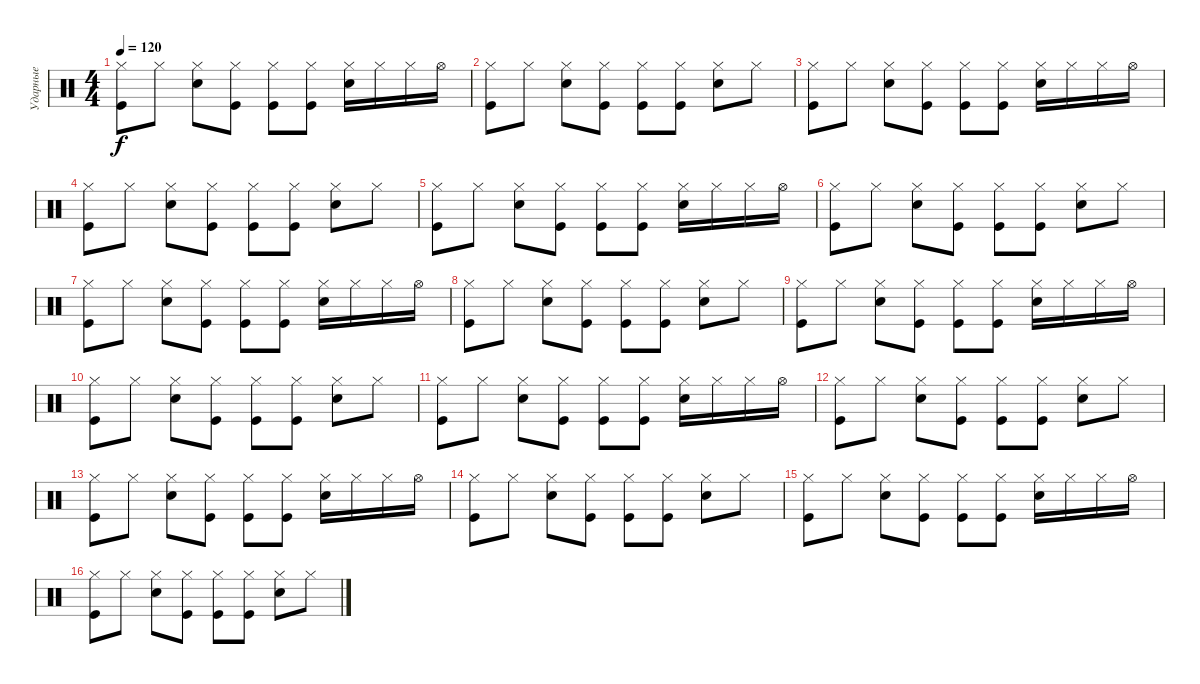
\track ("Ударные" "Ударные") {instrument percussion}
\staff {score}
\articulation defaults
\ts (4 4)
\tempo 120
\clef neutral
\ks c
("Kick (hit)" "Hi-Hat (closed)").8{dy f} "Hi-Hat (closed)".8 ("Hi-Hat (closed)" "Snare (hit) 2").8 ("Hi-Hat (closed)" "Kick (hit)").8 ("Hi-Hat (closed)" "Kick (hit)").8 ("Hi-Hat (closed)" "Kick (hit)").8 ("Hi-Hat (closed)" "Snare (hit) 2").16 "Hi-Hat (closed)".16 "Hi-Hat (closed)".16 "Hi-Hat (open)".16 |
("Kick (hit)" "Hi-Hat (closed)").8 "Hi-Hat (closed)".8 ("Hi-Hat (closed)" "Snare (hit) 2").8 ("Hi-Hat (closed)" "Kick (hit)").8 ("Hi-Hat (closed)" "Kick (hit)").8 ("Hi-Hat (closed)" "Kick (hit)").8 ("Hi-Hat (closed)" "Snare (hit) 2").8 "Hi-Hat (closed)".8 |
("Kick (hit)" "Hi-Hat (closed)").8 "Hi-Hat (closed)".8 ("Hi-Hat (closed)" "Snare (hit) 2").8 ("Hi-Hat (closed)" "Kick (hit)").8 ("Hi-Hat (closed)" "Kick (hit)").8 ("Hi-Hat (closed)" "Kick (hit)").8 ("Hi-Hat (closed)" "Snare (hit) 2").16 "Hi-Hat (closed)".16 "Hi-Hat (closed)".16 "Hi-Hat (open)".16 |
("Kick (hit)" "Hi-Hat (closed)").8 "Hi-Hat (closed)".8 ("Hi-Hat (closed)" "Snare (hit) 2").8 ("Hi-Hat (closed)" "Kick (hit)").8 ("Hi-Hat (closed)" "Kick (hit)").8 ("Hi-Hat (closed)" "Kick (hit)").8 ("Hi-Hat (closed)" "Snare (hit) 2").8 "Hi-Hat (closed)".8 |
("Kick (hit)" "Hi-Hat (closed)").8 "Hi-Hat (closed)".8 ("Hi-Hat (closed)" "Snare (hit) 2").8 ("Hi-Hat (closed)" "Kick (hit)").8 ("Hi-Hat (closed)" "Kick (hit)").8 ("Hi-Hat (closed)" "Kick (hit)").8 ("Hi-Hat (closed)" "Snare (hit) 2").16 "Hi-Hat (closed)".16 "Hi-Hat (closed)".16 "Hi-Hat (open)".16 |
("Kick (hit)" "Hi-Hat (closed)").8 "Hi-Hat (closed)".8 ("Hi-Hat (closed)" "Snare (hit) 2").8 ("Hi-Hat (closed)" "Kick (hit)").8 ("Hi-Hat (closed)" "Kick (hit)").8 ("Hi-Hat (closed)" "Kick (hit)").8 ("Hi-Hat (closed)" "Snare (hit) 2").8 "Hi-Hat (closed)".8 |
("Kick (hit)" "Hi-Hat (closed)").8 "Hi-Hat (closed)".8 ("Hi-Hat (closed)" "Snare (hit) 2").8 ("Hi-Hat (closed)" "Kick (hit)").8 ("Hi-Hat (closed)" "Kick (hit)").8 ("Hi-Hat (closed)" "Kick (hit)").8 ("Hi-Hat (closed)" "Snare (hit) 2").16 "Hi-Hat (closed)".16 "Hi-Hat (closed)".16 "Hi-Hat (open)".16 |
("Kick (hit)" "Hi-Hat (closed)").8 "Hi-Hat (closed)".8 ("Hi-Hat (closed)" "Snare (hit) 2").8 ("Hi-Hat (closed)" "Kick (hit)").8 ("Hi-Hat (closed)" "Kick (hit)").8 ("Hi-Hat (closed)" "Kick (hit)").8 ("Hi-Hat (closed)" "Snare (hit) 2").8 "Hi-Hat (closed)".8 |
("Kick (hit)" "Hi-Hat (closed)").8 "Hi-Hat (closed)".8 ("Hi-Hat (closed)" "Snare (hit) 2").8 ("Hi-Hat (closed)" "Kick (hit)").8 ("Hi-Hat (closed)" "Kick (hit)").8 ("Hi-Hat (closed)" "Kick (hit)").8 ("Hi-Hat (closed)" "Snare (hit) 2").16 "Hi-Hat (closed)".16 "Hi-Hat (closed)".16 "Hi-Hat (open)".16 |
("Kick (hit)" "Hi-Hat (closed)").8 "Hi-Hat (closed)".8 ("Hi-Hat (closed)" "Snare (hit) 2").8 ("Hi-Hat (closed)" "Kick (hit)").8 ("Hi-Hat (closed)" "Kick (hit)").8 ("Hi-Hat (closed)" "Kick (hit)").8 ("Hi-Hat (closed)" "Snare (hit) 2").8 "Hi-Hat (closed)".8 |
("Kick (hit)" "Hi-Hat (closed)").8 "Hi-Hat (closed)".8 ("Hi-Hat (closed)" "Snare (hit) 2").8 ("Hi-Hat (closed)" "Kick (hit)").8 ("Hi-Hat (closed)" "Kick (hit)").8 ("Hi-Hat (closed)" "Kick (hit)").8 ("Hi-Hat (closed)" "Snare (hit) 2").16 "Hi-Hat (closed)".16 "Hi-Hat (closed)".16 "Hi-Hat (open)".16 |
("Kick (hit)" "Hi-Hat (closed)").8 "Hi-Hat (closed)".8 ("Hi-Hat (closed)" "Snare (hit) 2").8 ("Hi-Hat (closed)" "Kick (hit)").8 ("Hi-Hat (closed)" "Kick (hit)").8 ("Hi-Hat (closed)" "Kick (hit)").8 ("Hi-Hat (closed)" "Snare (hit) 2").8 "Hi-Hat (closed)".8 |
("Kick (hit)" "Hi-Hat (closed)").8 "Hi-Hat (closed)".8 ("Hi-Hat (closed)" "Snare (hit) 2").8 ("Hi-Hat (closed)" "Kick (hit)").8 ("Hi-Hat (closed)" "Kick (hit)").8 ("Hi-Hat (closed)" "Kick (hit)").8 ("Hi-Hat (closed)" "Snare (hit) 2").16 "Hi-Hat (closed)".16 "Hi-Hat (closed)".16 "Hi-Hat (open)".16 |
("Kick (hit)" "Hi-Hat (closed)").8 "Hi-Hat (closed)".8 ("Hi-Hat (closed)" "Snare (hit) 2").8 ("Hi-Hat (closed)" "Kick (hit)").8 ("Hi-Hat (closed)" "Kick (hit)").8 ("Hi-Hat (closed)" "Kick (hit)").8 ("Hi-Hat (closed)" "Snare (hit) 2").8 "Hi-Hat (closed)".8 |
("Kick (hit)" "Hi-Hat (closed)").8 "Hi-Hat (closed)".8 ("Hi-Hat (closed)" "Snare (hit) 2").8 ("Hi-Hat (closed)" "Kick (hit)").8 ("Hi-Hat (closed)" "Kick (hit)").8 ("Hi-Hat (closed)" "Kick (hit)").8 ("Hi-Hat (closed)" "Snare (hit) 2").16 "Hi-Hat (closed)".16 "Hi-Hat (closed)".16 "Hi-Hat (open)".16 |
("Kick (hit)" "Hi-Hat (closed)").8 "Hi-Hat (closed)".8 ("Hi-Hat (closed)" "Snare (hit) 2").8 ("Hi-Hat (closed)" "Kick (hit)").8 ("Hi-Hat (closed)" "Kick (hit)").8 ("Hi-Hat (closed)" "Kick (hit)").8 ("Hi-Hat (closed)" "Snare (hit) 2").8 "Hi-Hat (closed)".8
